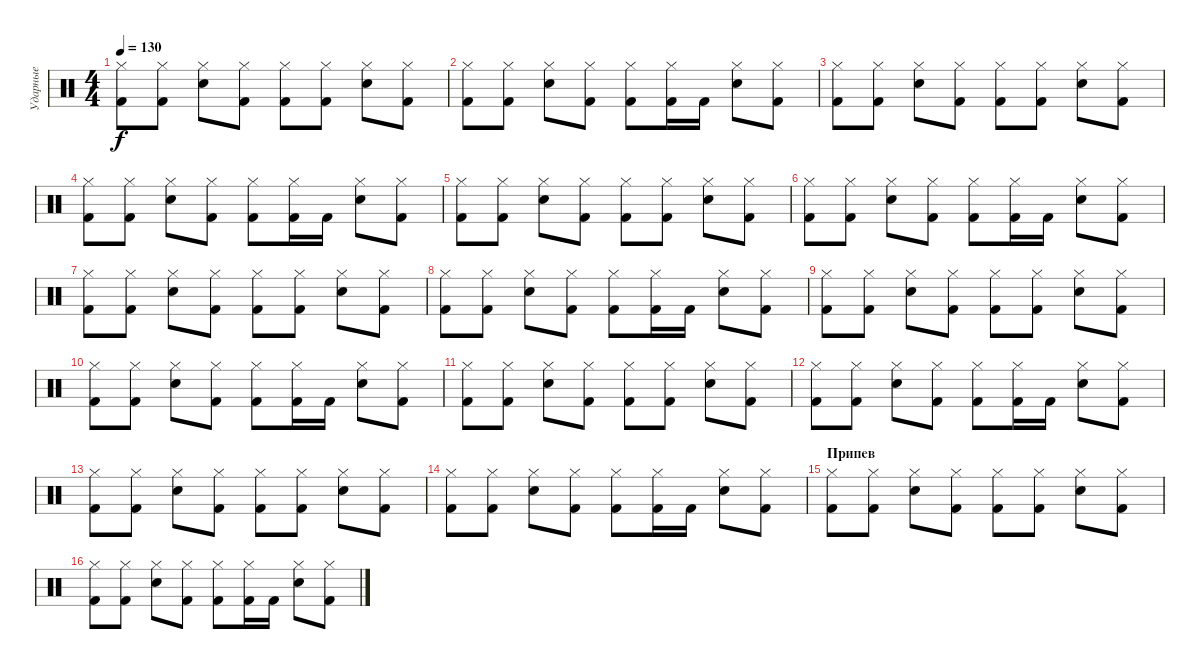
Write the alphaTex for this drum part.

\track ("Ударные" "Ударные") {instrument percussion}
\staff {score}
\articulation defaults
\ts (4 4)
\tempo 130
\clef neutral
\ks c
("Hi-Hat (closed)" "Kick (hit) 2").8{dy f} ("Hi-Hat (closed)" "Kick (hit) 2").8 ("Hi-Hat (closed)" "Snare (hit) 2").8 ("Hi-Hat (closed)" "Kick (hit) 2").8 ("Hi-Hat (closed)" "Kick (hit) 2").8 ("Hi-Hat (closed)" "Kick (hit) 2").8 ("Hi-Hat (closed)" "Snare (hit) 2").8 ("Hi-Hat (closed)" "Kick (hit) 2").8 |
("Hi-Hat (closed)" "Kick (hit) 2").8 ("Hi-Hat (closed)" "Kick (hit) 2").8 ("Hi-Hat (closed)" "Snare (hit) 2").8 ("Hi-Hat (closed)" "Kick (hit) 2").8 ("Hi-Hat (closed)" "Kick (hit) 2").8 ("Hi-Hat (closed)" "Kick (hit) 2").16 "Kick (hit) 2".16 ("Hi-Hat (closed)" "Snare (hit) 2").8 ("Hi-Hat (closed)" "Kick (hit) 2").8 |
("Hi-Hat (closed)" "Kick (hit) 2").8 ("Hi-Hat (closed)" "Kick (hit) 2").8 ("Hi-Hat (closed)" "Snare (hit) 2").8 ("Hi-Hat (closed)" "Kick (hit) 2").8 ("Hi-Hat (closed)" "Kick (hit) 2").8 ("Hi-Hat (closed)" "Kick (hit) 2").8 ("Hi-Hat (closed)" "Snare (hit) 2").8 ("Hi-Hat (closed)" "Kick (hit) 2").8 |
("Hi-Hat (closed)" "Kick (hit) 2").8 ("Hi-Hat (closed)" "Kick (hit) 2").8 ("Hi-Hat (closed)" "Snare (hit) 2").8 ("Hi-Hat (closed)" "Kick (hit) 2").8 ("Hi-Hat (closed)" "Kick (hit) 2").8 ("Hi-Hat (closed)" "Kick (hit) 2").16 "Kick (hit) 2".16 ("Hi-Hat (closed)" "Snare (hit) 2").8 ("Hi-Hat (closed)" "Kick (hit) 2").8 |
("Hi-Hat (closed)" "Kick (hit) 2").8 ("Hi-Hat (closed)" "Kick (hit) 2").8 ("Hi-Hat (closed)" "Snare (hit) 2").8 ("Hi-Hat (closed)" "Kick (hit) 2").8 ("Hi-Hat (closed)" "Kick (hit) 2").8 ("Hi-Hat (closed)" "Kick (hit) 2").8 ("Hi-Hat (closed)" "Snare (hit) 2").8 ("Hi-Hat (closed)" "Kick (hit) 2").8 |
("Hi-Hat (closed)" "Kick (hit) 2").8 ("Hi-Hat (closed)" "Kick (hit) 2").8 ("Hi-Hat (closed)" "Snare (hit) 2").8 ("Hi-Hat (closed)" "Kick (hit) 2").8 ("Hi-Hat (closed)" "Kick (hit) 2").8 ("Hi-Hat (closed)" "Kick (hit) 2").16 "Kick (hit) 2".16 ("Hi-Hat (closed)" "Snare (hit) 2").8 ("Hi-Hat (closed)" "Kick (hit) 2").8 |
("Hi-Hat (closed)" "Kick (hit) 2").8 ("Hi-Hat (closed)" "Kick (hit) 2").8 ("Hi-Hat (closed)" "Snare (hit) 2").8 ("Hi-Hat (closed)" "Kick (hit) 2").8 ("Hi-Hat (closed)" "Kick (hit) 2").8 ("Hi-Hat (closed)" "Kick (hit) 2").8 ("Hi-Hat (closed)" "Snare (hit) 2").8 ("Hi-Hat (closed)" "Kick (hit) 2").8 |
("Hi-Hat (closed)" "Kick (hit) 2").8 ("Hi-Hat (closed)" "Kick (hit) 2").8 ("Hi-Hat (closed)" "Snare (hit) 2").8 ("Hi-Hat (closed)" "Kick (hit) 2").8 ("Hi-Hat (closed)" "Kick (hit) 2").8 ("Hi-Hat (closed)" "Kick (hit) 2").16 "Kick (hit) 2".16 ("Hi-Hat (closed)" "Snare (hit) 2").8 ("Hi-Hat (closed)" "Kick (hit) 2").8 |
("Hi-Hat (closed)" "Kick (hit) 2").8 ("Hi-Hat (closed)" "Kick (hit) 2").8 ("Hi-Hat (closed)" "Snare (hit) 2").8 ("Hi-Hat (closed)" "Kick (hit) 2").8 ("Hi-Hat (closed)" "Kick (hit) 2").8 ("Hi-Hat (closed)" "Kick (hit) 2").8 ("Hi-Hat (closed)" "Snare (hit) 2").8 ("Hi-Hat (closed)" "Kick (hit) 2").8 |
("Hi-Hat (closed)" "Kick (hit) 2").8 ("Hi-Hat (closed)" "Kick (hit) 2").8 ("Hi-Hat (closed)" "Snare (hit) 2").8 ("Hi-Hat (closed)" "Kick (hit) 2").8 ("Hi-Hat (closed)" "Kick (hit) 2").8 ("Hi-Hat (closed)" "Kick (hit) 2").16 "Kick (hit) 2".16 ("Hi-Hat (closed)" "Snare (hit) 2").8 ("Hi-Hat (closed)" "Kick (hit) 2").8 |
("Hi-Hat (closed)" "Kick (hit) 2").8 ("Hi-Hat (closed)" "Kick (hit) 2").8 ("Hi-Hat (closed)" "Snare (hit) 2").8 ("Hi-Hat (closed)" "Kick (hit) 2").8 ("Hi-Hat (closed)" "Kick (hit) 2").8 ("Hi-Hat (closed)" "Kick (hit) 2").8 ("Hi-Hat (closed)" "Snare (hit) 2").8 ("Hi-Hat (closed)" "Kick (hit) 2").8 |
("Hi-Hat (closed)" "Kick (hit) 2").8 ("Hi-Hat (closed)" "Kick (hit) 2").8 ("Hi-Hat (closed)" "Snare (hit) 2").8 ("Hi-Hat (closed)" "Kick (hit) 2").8 ("Hi-Hat (closed)" "Kick (hit) 2").8 ("Hi-Hat (closed)" "Kick (hit) 2").16 "Kick (hit) 2".16 ("Hi-Hat (closed)" "Snare (hit) 2").8 ("Hi-Hat (closed)" "Kick (hit) 2").8 |
("Hi-Hat (closed)" "Kick (hit) 2").8 ("Hi-Hat (closed)" "Kick (hit) 2").8 ("Hi-Hat (closed)" "Snare (hit) 2").8 ("Hi-Hat (closed)" "Kick (hit) 2").8 ("Hi-Hat (closed)" "Kick (hit) 2").8 ("Hi-Hat (closed)" "Kick (hit) 2").8 ("Hi-Hat (closed)" "Snare (hit) 2").8 ("Hi-Hat (closed)" "Kick (hit) 2").8 |
("Hi-Hat (closed)" "Kick (hit) 2").8 ("Hi-Hat (closed)" "Kick (hit) 2").8 ("Hi-Hat (closed)" "Snare (hit) 2").8 ("Hi-Hat (closed)" "Kick (hit) 2").8 ("Hi-Hat (closed)" "Kick (hit) 2").8 ("Hi-Hat (closed)" "Kick (hit) 2").16 "Kick (hit) 2".16 ("Hi-Hat (closed)" "Snare (hit) 2").8 ("Hi-Hat (closed)" "Kick (hit) 2").8 |
\section ("" "Припев")
("Hi-Hat (closed)" "Kick (hit) 2").8 ("Hi-Hat (closed)" "Kick (hit) 2").8 ("Hi-Hat (closed)" "Snare (hit) 2").8 ("Hi-Hat (closed)" "Kick (hit) 2").8 ("Hi-Hat (closed)" "Kick (hit) 2").8 ("Hi-Hat (closed)" "Kick (hit) 2").8 ("Hi-Hat (closed)" "Snare (hit) 2").8 ("Hi-Hat (closed)" "Kick (hit) 2").8 |
("Hi-Hat (closed)" "Kick (hit) 2").8 ("Hi-Hat (closed)" "Kick (hit) 2").8 ("Hi-Hat (closed)" "Snare (hit) 2").8 ("Hi-Hat (closed)" "Kick (hit) 2").8 ("Hi-Hat (closed)" "Kick (hit) 2").8 ("Hi-Hat (closed)" "Kick (hit) 2").16 "Kick (hit) 2".16 ("Hi-Hat (closed)" "Snare (hit) 2").8 ("Hi-Hat (closed)" "Kick (hit) 2").8
